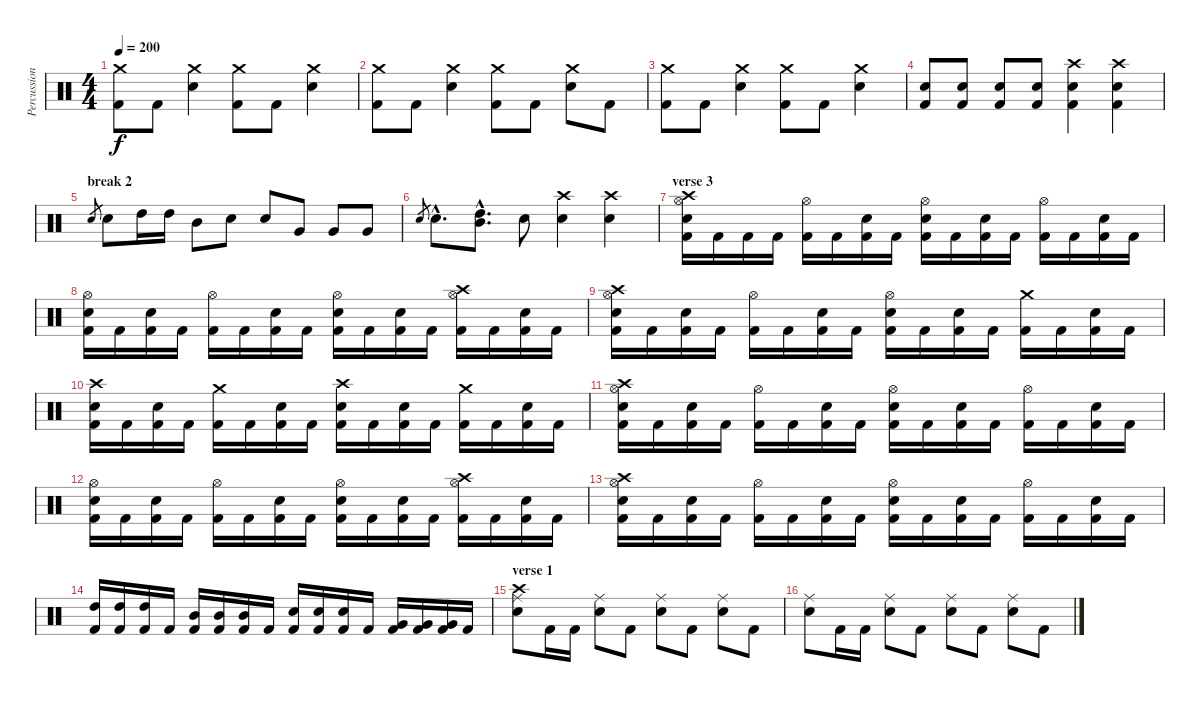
\track ("Percussions" "Percussion") {instrument percussion}
\staff {score}
\articulation defaults
\ts (4 4)
\tempo 200
\clef neutral
\ks c
("Crash medium (hit)" "Kick (hit) 2").8{dy f} "Kick (hit) 2".8 ("Crash medium (hit)" "Electric Snare (hit)").4 ("Crash medium (hit)" "Kick (hit) 2").8 "Kick (hit) 2".8 ("Crash medium (hit)" "Electric Snare (hit)").4 |
("Crash medium (hit)" "Kick (hit) 2").8 "Kick (hit) 2".8 ("Crash medium (hit)" "Electric Snare (hit)").4 ("Crash medium (hit)" "Kick (hit) 2").8 "Kick (hit) 2".8 ("Crash medium (hit)" "Electric Snare (hit)").8 "Kick (hit) 2".8 |
("Crash medium (hit)" "Kick (hit) 2").8 "Kick (hit) 2".8 ("Crash medium (hit)" "Electric Snare (hit)").4 ("Crash medium (hit)" "Kick (hit) 2").8 "Kick (hit) 2".8 ("Crash medium (hit)" "Electric Snare (hit)").4 |
("Electric Snare (hit)" "Kick (hit) 2").8 ("Electric Snare (hit)" "Kick (hit) 2").8 ("Electric Snare (hit)" "Kick (hit) 2").8 ("Electric Snare (hit)" "Kick (hit) 2").8 ("Crash high (hit)" "Electric Snare (hit)" "Kick (hit) 2").4 ("Crash high (hit)" "Electric Snare (hit)" "Kick (hit) 2").4 |
\section ("" "break 2")
"Electric Snare (hit)".8{gr} "Electric Snare (hit)".8 "High Tom (hit)".16 "High Tom (hit)".16 "Mid Tom (hit)".8 "Electric Snare (hit)".8 "Electric Snare (hit)".8 "Very Low Tom (hit)".8 "Very Low Tom (hit)".8 "Very Low Tom (hit)".8 |
"Electric Snare (hit)".8{gr} "Electric Snare (hit)"{hac}.8{d} ("High Tom (hit)"{hac} "Mid Tom (hit)"{hac}).8{d bd 120} "Electric Snare (hit)".8 ("Crash high (hit)" "Electric Snare (hit)").4 ("Crash high (hit)" "Electric Snare (hit)").4 |
\section ("" "verse 3")
("Hi-Hat (open)" "Crash high (hit)" "Electric Snare (hit)" "Kick (hit) 2").16 "Kick (hit) 2".16 "Kick (hit) 2".16 "Kick (hit) 2".16 ("Hi-Hat (open)" "Kick (hit) 2").16 "Kick (hit) 2".16 ("Electric Snare (hit)" "Kick (hit) 2").16 "Kick (hit) 2".16 ("Hi-Hat (open)" "Electric Snare (hit)" "Kick (hit) 2").16 "Kick (hit) 2".16 ("Electric Snare (hit)" "Kick (hit) 2").16 "Kick (hit) 2".16 ("Hi-Hat (open)" "Kick (hit) 2").16 "Kick (hit) 2".16 ("Electric Snare (hit)" "Kick (hit) 2").16 "Kick (hit) 2".16 |
("Hi-Hat (open)" "Electric Snare (hit)" "Kick (hit) 2").16 "Kick (hit) 2".16 ("Electric Snare (hit)" "Kick (hit) 2").16 "Kick (hit) 2".16 ("Hi-Hat (open)" "Kick (hit) 2").16 "Kick (hit) 2".16 ("Electric Snare (hit)" "Kick (hit) 2").16 "Kick (hit) 2".16 ("Hi-Hat (open)" "Electric Snare (hit)" "Kick (hit) 2").16 "Kick (hit) 2".16 ("Electric Snare (hit)" "Kick (hit) 2").16 "Kick (hit) 2".16 ("Hi-Hat (open)" "Crash high (hit)" "Kick (hit) 2").16 "Kick (hit) 2".16 ("Electric Snare (hit)" "Kick (hit) 2").16 "Kick (hit) 2".16 |
("Hi-Hat (open)" "Crash high (hit)" "Electric Snare (hit)" "Kick (hit) 2").16 "Kick (hit) 2".16 ("Electric Snare (hit)" "Kick (hit) 2").16 "Kick (hit) 2".16 ("Hi-Hat (open)" "Kick (hit) 2").16 "Kick (hit) 2".16 ("Electric Snare (hit)" "Kick (hit) 2").16 "Kick (hit) 2".16 ("Hi-Hat (open)" "Electric Snare (hit)" "Kick (hit) 2").16 "Kick (hit) 2".16 ("Electric Snare (hit)" "Kick (hit) 2").16 "Kick (hit) 2".16 ("Crash medium (hit)" "Kick (hit) 2").16 "Kick (hit) 2".16 ("Electric Snare (hit)" "Kick (hit) 2").16 "Kick (hit) 2".16 |
("Crash high (hit)" "Electric Snare (hit)" "Kick (hit) 2").16 "Kick (hit) 2".16 ("Electric Snare (hit)" "Kick (hit) 2").16 "Kick (hit) 2".16 ("Crash medium (hit)" "Kick (hit) 2").16 "Kick (hit) 2".16 ("Electric Snare (hit)" "Kick (hit) 2").16 "Kick (hit) 2".16 ("Crash high (hit)" "Electric Snare (hit)" "Kick (hit) 2").16 "Kick (hit) 2".16 ("Electric Snare (hit)" "Kick (hit) 2").16 "Kick (hit) 2".16 ("Crash medium (hit)" "Kick (hit) 2").16 "Kick (hit) 2".16 ("Electric Snare (hit)" "Kick (hit) 2").16 "Kick (hit) 2".16 |
("Hi-Hat (open)" "Crash high (hit)" "Electric Snare (hit)" "Kick (hit) 2").16 "Kick (hit) 2".16 ("Electric Snare (hit)" "Kick (hit) 2").16 "Kick (hit) 2".16 ("Hi-Hat (open)" "Kick (hit) 2").16 "Kick (hit) 2".16 ("Electric Snare (hit)" "Kick (hit) 2").16 "Kick (hit) 2".16 ("Hi-Hat (open)" "Electric Snare (hit)" "Kick (hit) 2").16 "Kick (hit) 2".16 ("Electric Snare (hit)" "Kick (hit) 2").16 "Kick (hit) 2".16 ("Hi-Hat (open)" "Kick (hit) 2").16 "Kick (hit) 2".16 ("Electric Snare (hit)" "Kick (hit) 2").16 "Kick (hit) 2".16 |
("Hi-Hat (open)" "Electric Snare (hit)" "Kick (hit) 2").16 "Kick (hit) 2".16 ("Electric Snare (hit)" "Kick (hit) 2").16 "Kick (hit) 2".16 ("Hi-Hat (open)" "Kick (hit) 2").16 "Kick (hit) 2".16 ("Electric Snare (hit)" "Kick (hit) 2").16 "Kick (hit) 2".16 ("Hi-Hat (open)" "Electric Snare (hit)" "Kick (hit) 2").16 "Kick (hit) 2".16 ("Electric Snare (hit)" "Kick (hit) 2").16 "Kick (hit) 2".16 ("Hi-Hat (open)" "Crash high (hit)" "Kick (hit) 2").16 "Kick (hit) 2".16 ("Electric Snare (hit)" "Kick (hit) 2").16 "Kick (hit) 2".16 |
("Hi-Hat (open)" "Crash high (hit)" "Electric Snare (hit)" "Kick (hit) 2").16 "Kick (hit) 2".16 ("Electric Snare (hit)" "Kick (hit) 2").16 "Kick (hit) 2".16 ("Hi-Hat (open)" "Kick (hit) 2").16 "Kick (hit) 2".16 ("Electric Snare (hit)" "Kick (hit) 2").16 "Kick (hit) 2".16 ("Hi-Hat (open)" "Electric Snare (hit)" "Kick (hit) 2").16 "Kick (hit) 2".16 ("Electric Snare (hit)" "Kick (hit) 2").16 "Kick (hit) 2".16 ("Hi-Hat (open)" "Kick (hit) 2").16 "Kick (hit) 2".16 ("Electric Snare (hit)" "Kick (hit) 2").16 "Kick (hit) 2".16 |
("High Tom (hit)" "Kick (hit) 2").16 ("High Tom (hit)" "Kick (hit) 2").16 ("High Tom (hit)" "Kick (hit) 2").16 "Kick (hit) 2".16 ("Mid Tom (hit)" "Kick (hit) 2").16 ("Mid Tom (hit)" "Kick (hit) 2").16 ("Mid Tom (hit)" "Kick (hit) 2").16 "Kick (hit) 2".16 ("Electric Snare (hit)" "Kick (hit) 2").16 ("Electric Snare (hit)" "Kick (hit) 2").16 ("Electric Snare (hit)" "Kick (hit) 2").16 "Kick (hit) 2".16 ("Very Low Tom (hit)" "Kick (hit) 2").16 ("Very Low Tom (hit)" "Kick (hit) 2").16 ("Very Low Tom (hit)" "Kick (hit) 2").16 "Kick (hit) 2".16 |
\section ("" "verse 1")
("Crash high (hit)" "Ride (middle)" "Electric Snare (hit)").8 "Kick (hit) 2".16 "Kick (hit) 2".16 ("Ride (middle)" "Electric Snare (hit)").8 "Kick (hit) 2".8 ("Ride (middle)" "Electric Snare (hit)").8 "Kick (hit) 2".8 ("Ride (middle)" "Electric Snare (hit)").8 "Kick (hit) 2".8 |
("Ride (middle)" "Electric Snare (hit)").8 "Kick (hit) 2".16 "Kick (hit) 2".16 ("Ride (middle)" "Electric Snare (hit)").8 "Kick (hit) 2".8 ("Ride (middle)" "Electric Snare (hit)").8 "Kick (hit) 2".8 ("Ride (middle)" "Electric Snare (hit)").8 "Kick (hit) 2".8
